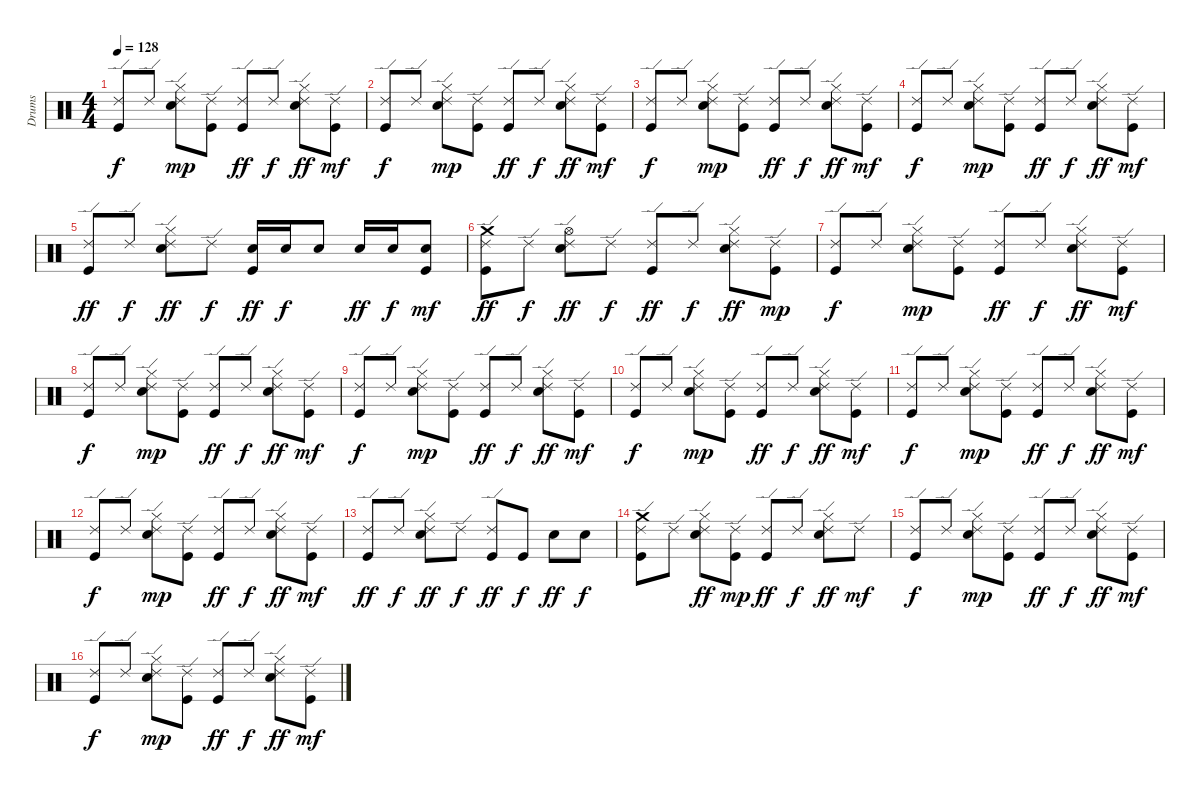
\track ("Drums" "Drums") {instrument percussion}
\staff {score}
\articulation defaults
\ts (4 4)
\tempo 128
\clef neutral
\ks c
("Ride (edge) 2" "Kick (hit)").8{dy f} "Ride (edge) 2".8 ("Electric Snare (hit)" "Hi-Hat (closed)" "Ride (edge) 2").8{dy mp} ("Ride (edge) 2" "Kick (hit)").8 ("Ride (edge) 2" "Kick (hit)").8{dy ff} "Ride (edge) 2".8{dy f} ("Electric Snare (hit)" "Hi-Hat (closed)" "Ride (edge) 2").8{dy ff} ("Ride (edge) 2" "Kick (hit)").8{dy mf} |
("Ride (edge) 2" "Kick (hit)").8{dy f} "Ride (edge) 2".8 ("Electric Snare (hit)" "Hi-Hat (closed)" "Ride (edge) 2").8{dy mp} ("Ride (edge) 2" "Kick (hit)").8 ("Ride (edge) 2" "Kick (hit)").8{dy ff} "Ride (edge) 2".8{dy f} ("Electric Snare (hit)" "Hi-Hat (closed)" "Ride (edge) 2").8{dy ff} ("Ride (edge) 2" "Kick (hit)").8{dy mf} |
("Ride (edge) 2" "Kick (hit)").8{dy f} "Ride (edge) 2".8 ("Electric Snare (hit)" "Hi-Hat (closed)" "Ride (edge) 2").8{dy mp} ("Ride (edge) 2" "Kick (hit)").8 ("Ride (edge) 2" "Kick (hit)").8{dy ff} "Ride (edge) 2".8{dy f} ("Electric Snare (hit)" "Hi-Hat (closed)" "Ride (edge) 2").8{dy ff} ("Ride (edge) 2" "Kick (hit)").8{dy mf} |
("Ride (edge) 2" "Kick (hit)").8{dy f} "Ride (edge) 2".8 ("Electric Snare (hit)" "Hi-Hat (closed)" "Ride (edge) 2").8{dy mp} ("Ride (edge) 2" "Kick (hit)").8 ("Ride (edge) 2" "Kick (hit)").8{dy ff} "Ride (edge) 2".8{dy f} ("Electric Snare (hit)" "Hi-Hat (closed)" "Ride (edge) 2").8{dy ff} ("Ride (edge) 2" "Kick (hit)").8{dy mf} |
("Ride (edge) 2" "Kick (hit)").8{dy ff} "Ride (edge) 2".8{dy f} ("Electric Snare (hit)" "Hi-Hat (closed)" "Ride (edge) 2").8{dy ff} "Ride (edge) 2".8{dy f} ("Electric Snare (hit)" "Kick (hit)").16{dy ff} "Electric Snare (hit)".16{dy f} "Electric Snare (hit)".8 "Electric Snare (hit)".16{dy ff} "Electric Snare (hit)".16{dy f} ("Electric Snare (hit)" "Kick (hit)").8{dy mf} |
("Crash medium (hit)" "Ride (edge) 2" "Kick (hit)").8{dy ff} "Ride (edge) 2".8{dy f} ("Electric Snare (hit)" "Hi-Hat (open)" "Ride (edge) 2").8{dy ff} "Ride (edge) 2".8{dy f} ("Ride (edge) 2" "Kick (hit)").8{dy ff} "Ride (edge) 2".8{dy f} ("Electric Snare (hit)" "Hi-Hat (closed)" "Ride (edge) 2").8{dy ff} ("Ride (edge) 2" "Kick (hit)").8{dy mp} |
("Ride (edge) 2" "Kick (hit)").8{dy f} "Ride (edge) 2".8 ("Electric Snare (hit)" "Hi-Hat (closed)" "Ride (edge) 2").8{dy mp} ("Ride (edge) 2" "Kick (hit)").8 ("Ride (edge) 2" "Kick (hit)").8{dy ff} "Ride (edge) 2".8{dy f} ("Electric Snare (hit)" "Hi-Hat (closed)" "Ride (edge) 2").8{dy ff} ("Ride (edge) 2" "Kick (hit)").8{dy mf} |
("Ride (edge) 2" "Kick (hit)").8{dy f} "Ride (edge) 2".8 ("Electric Snare (hit)" "Hi-Hat (closed)" "Ride (edge) 2").8{dy mp} ("Ride (edge) 2" "Kick (hit)").8 ("Ride (edge) 2" "Kick (hit)").8{dy ff} "Ride (edge) 2".8{dy f} ("Electric Snare (hit)" "Hi-Hat (closed)" "Ride (edge) 2").8{dy ff} ("Ride (edge) 2" "Kick (hit)").8{dy mf} |
("Ride (edge) 2" "Kick (hit)").8{dy f} "Ride (edge) 2".8 ("Electric Snare (hit)" "Hi-Hat (closed)" "Ride (edge) 2").8{dy mp} ("Ride (edge) 2" "Kick (hit)").8 ("Ride (edge) 2" "Kick (hit)").8{dy ff} "Ride (edge) 2".8{dy f} ("Electric Snare (hit)" "Hi-Hat (closed)" "Ride (edge) 2").8{dy ff} ("Ride (edge) 2" "Kick (hit)").8{dy mf} |
("Ride (edge) 2" "Kick (hit)").8{dy f} "Ride (edge) 2".8 ("Electric Snare (hit)" "Hi-Hat (closed)" "Ride (edge) 2").8{dy mp} ("Ride (edge) 2" "Kick (hit)").8 ("Ride (edge) 2" "Kick (hit)").8{dy ff} "Ride (edge) 2".8{dy f} ("Electric Snare (hit)" "Hi-Hat (closed)" "Ride (edge) 2").8{dy ff} ("Ride (edge) 2" "Kick (hit)").8{dy mf} |
("Ride (edge) 2" "Kick (hit)").8{dy f} "Ride (edge) 2".8 ("Electric Snare (hit)" "Hi-Hat (closed)" "Ride (edge) 2").8{dy mp} ("Ride (edge) 2" "Kick (hit)").8 ("Ride (edge) 2" "Kick (hit)").8{dy ff} "Ride (edge) 2".8{dy f} ("Electric Snare (hit)" "Hi-Hat (closed)" "Ride (edge) 2").8{dy ff} ("Ride (edge) 2" "Kick (hit)").8{dy mf} |
("Ride (edge) 2" "Kick (hit)").8{dy f} "Ride (edge) 2".8 ("Electric Snare (hit)" "Hi-Hat (closed)" "Ride (edge) 2").8{dy mp} ("Ride (edge) 2" "Kick (hit)").8 ("Ride (edge) 2" "Kick (hit)").8{dy ff} "Ride (edge) 2".8{dy f} ("Electric Snare (hit)" "Hi-Hat (closed)" "Ride (edge) 2").8{dy ff} ("Ride (edge) 2" "Kick (hit)").8{dy mf} |
("Ride (edge) 2" "Kick (hit)").8{dy ff} "Ride (edge) 2".8{dy f} ("Electric Snare (hit)" "Hi-Hat (closed)" "Ride (edge) 2").8{dy ff} "Ride (edge) 2".8{dy f} ("Ride (edge) 2" "Kick (hit)").8{dy ff} "Kick (hit)".8{dy f} "Electric Snare (hit)".8{dy ff} "Electric Snare (hit)".8{dy f} |
("Crash medium (hit)" "Ride (edge) 2" "Kick (hit)").8 "Ride (edge) 2".8 ("Electric Snare (hit)" "Hi-Hat (closed)" "Ride (edge) 2").8{dy ff} ("Ride (edge) 2" "Kick (hit)").8{dy mp} ("Ride (edge) 2" "Kick (hit)").8{dy ff} "Ride (edge) 2".8{dy f} ("Electric Snare (hit)" "Hi-Hat (closed)" "Ride (edge) 2").8{dy ff} "Ride (edge) 2".8{dy mf} |
("Ride (edge) 2" "Kick (hit)").8{dy f} "Ride (edge) 2".8 ("Electric Snare (hit)" "Hi-Hat (closed)" "Ride (edge) 2").8{dy mp} ("Ride (edge) 2" "Kick (hit)").8 ("Ride (edge) 2" "Kick (hit)").8{dy ff} "Ride (edge) 2".8{dy f} ("Electric Snare (hit)" "Hi-Hat (closed)" "Ride (edge) 2").8{dy ff} ("Ride (edge) 2" "Kick (hit)").8{dy mf} |
("Ride (edge) 2" "Kick (hit)").8{dy f} "Ride (edge) 2".8 ("Electric Snare (hit)" "Hi-Hat (closed)" "Ride (edge) 2").8{dy mp} ("Ride (edge) 2" "Kick (hit)").8 ("Ride (edge) 2" "Kick (hit)").8{dy ff} "Ride (edge) 2".8{dy f} ("Electric Snare (hit)" "Hi-Hat (closed)" "Ride (edge) 2").8{dy ff} ("Ride (edge) 2" "Kick (hit)").8{dy mf}
